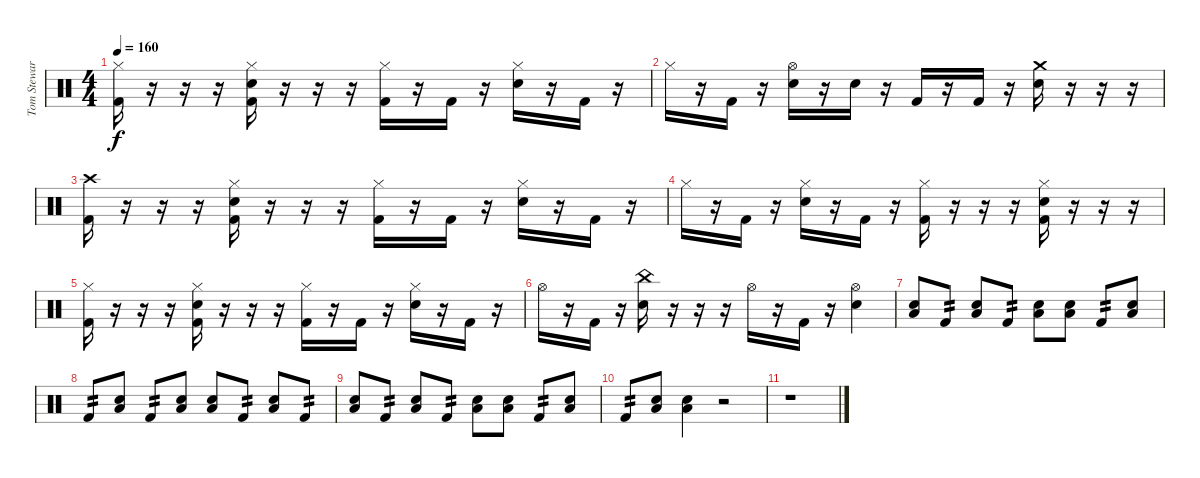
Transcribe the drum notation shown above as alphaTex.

\track ("Tom Steward" "Tom Stewar") {instrument percussion}
\staff {score}
\articulation defaults
\ts (4 4)
\tempo 160
\clef neutral
\ks c
("Hi-Hat (closed)" "Kick (hit) 2").16{dy f} r.16 r.16 r.16 ("Hi-Hat (closed)" "Snare (hit) 2" "Kick (hit) 2").16 r.16 r.16 r.16 ("Hi-Hat (closed)" "Kick (hit) 2").16 r.16 "Kick (hit) 2".16 r.16 ("Hi-Hat (closed)" "Snare (hit) 2").16 r.16 "Kick (hit) 2".16 r.16 |
"Hi-Hat (closed)".16 r.16 "Kick (hit) 2".16 r.16 ("Hi-Hat (open)" "Snare (hit) 2").16 r.16 "Snare (hit) 2".16 r.16 "Kick (hit) 2".16 r.16 "Kick (hit) 2".16 r.16 ("Crash medium (hit)" "Snare (hit) 2").16 r.16 r.16 r.16 |
("Crash high (hit)" "Kick (hit) 2").16 r.16 r.16 r.16 ("Hi-Hat (closed)" "Snare (hit) 2" "Kick (hit) 2").16 r.16 r.16 r.16 ("Hi-Hat (closed)" "Kick (hit) 2").16 r.16 "Kick (hit) 2".16 r.16 ("Hi-Hat (closed)" "Snare (hit) 2").16 r.16 "Kick (hit) 2".16 r.16 |
"Hi-Hat (closed)".16 r.16 "Kick (hit) 2".16 r.16 ("Hi-Hat (closed)" "Snare (hit) 2").16 r.16 "Kick (hit) 2".16 r.16 ("Hi-Hat (closed)" "Kick (hit) 2").16 r.16 r.16 r.16 ("Hi-Hat (closed)" "Snare (hit) 2" "Kick (hit) 2").16 r.16 r.16 r.16 |
("Hi-Hat (closed)" "Kick (hit) 2").16 r.16 r.16 r.16 ("Hi-Hat (closed)" "Snare (hit) 2" "Kick (hit) 2").16 r.16 r.16 r.16 ("Hi-Hat (closed)" "Kick (hit) 2").16 r.16 "Kick (hit) 2".16 r.16 ("Hi-Hat (closed)" "Snare (hit) 2").16 r.16 "Kick (hit) 2".16 r.16 |
"Hi-Hat (open)".16 r.16 "Kick (hit) 2".16 r.16 ("China (hit)" "Snare (hit) 2").16 r.16 r.16 r.16 "Hi-Hat (open)".16 r.16 "Kick (hit) 2".16 r.16 ("Hi-Hat (open)" "Snare (hit) 2").4 |
("Snare (hit) 2" "Low Floor Tom (hit)").8 "Kick (hit) 2".8{tp 2} ("Snare (hit) 2" "Low Floor Tom (hit)").8 "Kick (hit) 2".8{tp 2} ("Snare (hit) 2" "Low Floor Tom (hit)").8 ("Snare (hit) 2" "Low Floor Tom (hit)").8 "Kick (hit) 2".8{tp 2} ("Snare (hit) 2" "Low Floor Tom (hit)").8 |
"Kick (hit) 2".8{tp 2} ("Snare (hit) 2" "Low Floor Tom (hit)").8 "Kick (hit) 2".8{tp 2} ("Snare (hit) 2" "Low Floor Tom (hit)").8 ("Snare (hit) 2" "Low Floor Tom (hit)").8 "Kick (hit) 2".8{tp 2} ("Snare (hit) 2" "Low Floor Tom (hit)").8 "Kick (hit) 2".8{tp 2} |
("Snare (hit) 2" "Low Floor Tom (hit)").8 "Kick (hit) 2".8{tp 2} ("Snare (hit) 2" "Low Floor Tom (hit)").8 "Kick (hit) 2".8{tp 2} ("Snare (hit) 2" "Low Floor Tom (hit)").8 ("Snare (hit) 2" "Low Floor Tom (hit)").8 "Kick (hit) 2".8{tp 2} ("Snare (hit) 2" "Low Floor Tom (hit)").8 |
"Kick (hit) 2".8{tp 2} ("Snare (hit) 2" "Low Floor Tom (hit)").8 ("Snare (hit) 2" "Low Floor Tom (hit)").4 r.2 |
r.1
